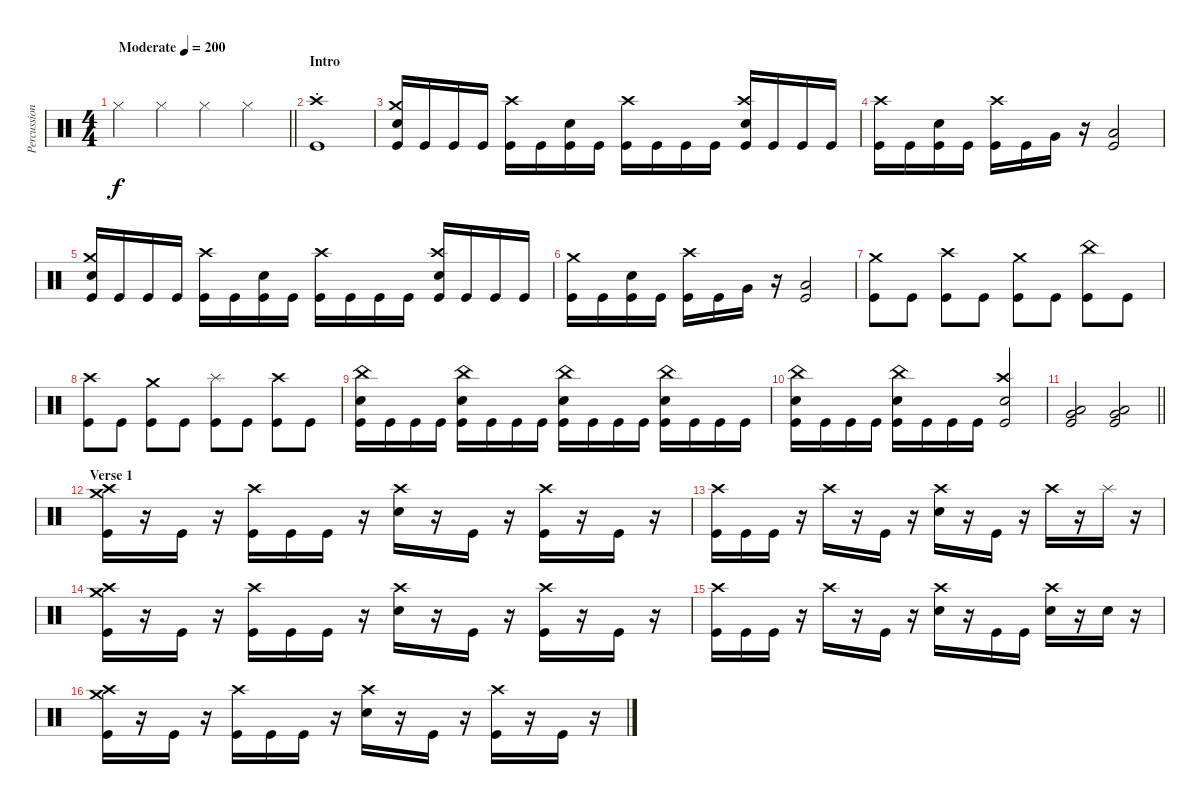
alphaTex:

\track ("Percussion" "Percussion") {instrument percussion}
\staff {score}
\articulation defaults
\ts (4 4)
\tempo (200 "Moderate")
\clef neutral
\barLineRight lightlight
\ks c "Hi-Hat (closed)".4{dy f} "Hi-Hat (closed)".4 "Hi-Hat (closed)".4 "Hi-Hat (closed)".4
|
\section ("" "Intro")
("Kick (hit)"{st} "Crash high (hit)"{st}).1 |
("Crash medium (hit)" "Snare (hit) 2" "Kick (hit)").16 "Kick (hit)".16 "Kick (hit)".16 "Kick (hit)".16 ("Crash high (hit)" "Kick (hit)").16 "Kick (hit)".16 ("Snare (hit) 2" "Kick (hit)").16 "Kick (hit)".16 ("Crash high (hit)" "Kick (hit)").16 "Kick (hit)".16 "Kick (hit)".16 "Kick (hit)".16 ("Crash high (hit)" "Snare (hit) 2" "Kick (hit)").16 "Kick (hit)".16 "Kick (hit)".16 "Kick (hit)".16 |
("Crash high (hit)" "Kick (hit)").16 "Kick (hit)".16 ("Snare (hit) 2" "Kick (hit)").16 "Kick (hit)".16 ("Crash high (hit)" "Kick (hit)").16 "Kick (hit)".16 "Very Low Tom (hit)".16 r.16 ("Kick (hit)" "Low Floor Tom (hit)").2 |
("Crash medium (hit)" "Snare (hit) 2" "Kick (hit)").16 "Kick (hit)".16 "Kick (hit)".16 "Kick (hit)".16 ("Crash high (hit)" "Kick (hit)").16 "Kick (hit)".16 ("Snare (hit) 2" "Kick (hit)").16 "Kick (hit)".16 ("Crash high (hit)" "Kick (hit)").16 "Kick (hit)".16 "Kick (hit)".16 "Kick (hit)".16 ("Crash high (hit)" "Snare (hit) 2" "Kick (hit)").16 "Kick (hit)".16 "Kick (hit)".16 "Kick (hit)".16 |
("Crash medium (hit)" "Kick (hit)").16 "Kick (hit)".16 ("Snare (hit) 2" "Kick (hit)").16 "Kick (hit)".16 ("Crash high (hit)" "Kick (hit)").16 "Kick (hit)".16 "Very Low Tom (hit)".16 r.16 ("Kick (hit)" "Low Floor Tom (hit)").2 |
("Crash medium (hit)" "Kick (hit)").8 "Kick (hit)".8 ("Crash high (hit)" "Kick (hit)").8 "Kick (hit)".8 ("Crash medium (hit)" "Kick (hit)").8 "Kick (hit)".8 ("China (hit)" "Kick (hit)").8 "Kick (hit)".8 |
("Crash high (hit)" "Kick (hit)").8 "Kick (hit)".8 ("Crash medium (hit)" "Kick (hit)").8 "Kick (hit)".8 ("Splash (hit)" "Kick (hit)").8 "Kick (hit)".8 ("Crash high (hit)" "Kick (hit)").8 "Kick (hit)".8 |
("China (hit)" "Snare (hit) 2" "Kick (hit)").16 "Kick (hit)".16 "Kick (hit)".16 "Kick (hit)".16 ("China (hit)" "Snare (hit) 2" "Kick (hit)").16 "Kick (hit)".16 "Kick (hit)".16 "Kick (hit)".16 ("China (hit)" "Snare (hit) 2" "Kick (hit)").16 "Kick (hit)".16 "Kick (hit)".16 "Kick (hit)".16 ("China (hit)" "Snare (hit) 2" "Kick (hit)").16 "Kick (hit)".16 "Kick (hit)".16 "Kick (hit)".16 |
("China (hit)" "Snare (hit) 2" "Kick (hit)").16 "Kick (hit)".16 "Kick (hit)".16 "Kick (hit)".16 ("China (hit)" "Snare (hit) 2" "Kick (hit)").16 "Kick (hit)".16 "Kick (hit)".16 "Kick (hit)".16 ("Kick (hit)" "Crash high (hit)" "Snare (hit) 2").2 |
\barLineRight lightlight
("Low Floor Tom (hit)" "Very Low Tom (hit)" "Kick (hit)").2 ("Low Floor Tom (hit)" "Very Low Tom (hit)" "Kick (hit)").2 |
\section ("" "Verse 1")
("Crash high (hit)" "Crash medium (hit)" "Kick (hit)").16 r.16 "Kick (hit)".16 r.16 ("Crash high (hit)" "Kick (hit)").16 "Kick (hit)".16 "Kick (hit)".16 r.16 ("Crash high (hit)" "Snare (hit) 2").16 r.16 "Kick (hit)".16 r.16 ("Crash high (hit)" "Kick (hit)").16 r.16 "Kick (hit)".16 r.16 |
("Crash high (hit)" "Kick (hit)").16 "Kick (hit)".16 "Kick (hit)".16 r.16 "Crash high (hit)".16 r.16 "Kick (hit)".16 r.16 ("Crash high (hit)" "Snare (hit) 2").16 r.16 "Kick (hit)".16 r.16 "Crash high (hit)".16 r.16 "Splash (hit)".16 r.16 |
("Crash high (hit)" "Crash medium (hit)" "Kick (hit)").16 r.16 "Kick (hit)".16 r.16 ("Crash high (hit)" "Kick (hit)").16 "Kick (hit)".16 "Kick (hit)".16 r.16 ("Crash high (hit)" "Snare (hit) 2").16 r.16 "Kick (hit)".16 r.16 ("Crash high (hit)" "Kick (hit)").16 r.16 "Kick (hit)".16 r.16 |
("Crash high (hit)" "Kick (hit)").16 "Kick (hit)".16 "Kick (hit)".16 r.16 "Crash high (hit)".16 r.16 "Kick (hit)".16 r.16 ("Crash high (hit)" "Snare (hit) 2").16 r.16 "Kick (hit)".16 "Kick (hit)".16 ("Crash high (hit)" "Snare (hit) 2").16 r.16 "Snare (hit) 2".16 r.16 |
("Crash high (hit)" "Crash medium (hit)" "Kick (hit)").16 r.16 "Kick (hit)".16 r.16 ("Crash high (hit)" "Kick (hit)").16 "Kick (hit)".16 "Kick (hit)".16 r.16 ("Crash high (hit)" "Snare (hit) 2").16 r.16 "Kick (hit)".16 r.16 ("Crash high (hit)" "Kick (hit)").16 r.16 "Kick (hit)".16 r.16
